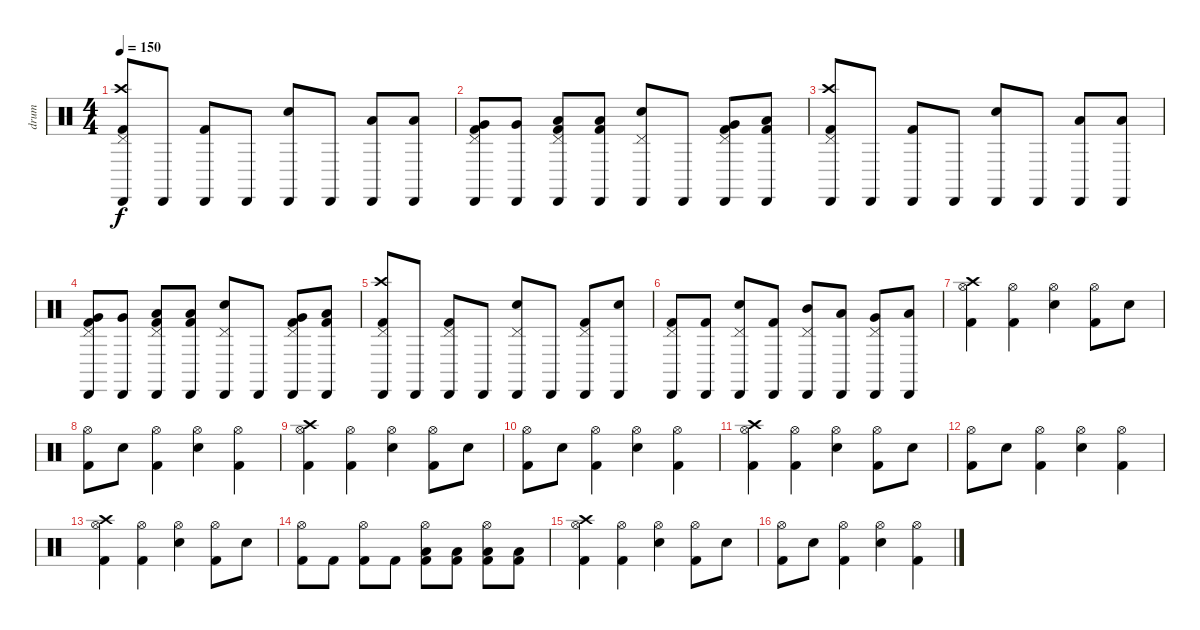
\track ("drum" "drum") {instrument percussion}
\staff {score}
\articulation defaults
\ts (4 4)
\tempo 150
\clef neutral
\ks c
("Crash high (hit)" "Pedal Hi-Hat (hit)" "Kick (hit) 2" "Cabasa (hit)").8{dy f} "Cabasa (hit)".8 ("Kick (hit) 2" "Cabasa (hit)").8 "Cabasa (hit)".8 ("Electric Snare (hit)" "Cabasa (hit)").8 "Cabasa (hit)".8 ("Low Tom (hit)" "Cabasa (hit)").8 ("Low Tom (hit)" "Cabasa (hit)").8 |
("Pedal Hi-Hat (hit)" "Very Low Tom (hit)" "Kick (hit) 2" "Cabasa (hit)").8 ("Very Low Tom (hit)" "Cabasa (hit)").8 ("Pedal Hi-Hat (hit)" "Low Floor Tom (hit)" "Kick (hit) 2" "Cabasa (hit)").8 ("Low Floor Tom (hit)" "Kick (hit) 2" "Cabasa (hit)").8 ("Pedal Hi-Hat (hit)" "Electric Snare (hit)" "Cabasa (hit)").8 "Cabasa (hit)".8 ("Pedal Hi-Hat (hit)" "Very Low Tom (hit)" "Kick (hit) 2" "Cabasa (hit)").8 ("Low Floor Tom (hit)" "Kick (hit) 2" "Cabasa (hit)").8 |
("Crash high (hit)" "Pedal Hi-Hat (hit)" "Kick (hit) 2" "Cabasa (hit)").8 "Cabasa (hit)".8 ("Kick (hit) 2" "Cabasa (hit)").8 "Cabasa (hit)".8 ("Electric Snare (hit)" "Cabasa (hit)").8 "Cabasa (hit)".8 ("Low Tom (hit)" "Cabasa (hit)").8 ("Low Tom (hit)" "Cabasa (hit)").8 |
("Pedal Hi-Hat (hit)" "Very Low Tom (hit)" "Kick (hit) 2" "Cabasa (hit)").8 ("Very Low Tom (hit)" "Cabasa (hit)").8 ("Pedal Hi-Hat (hit)" "Low Floor Tom (hit)" "Kick (hit) 2" "Cabasa (hit)").8 ("Low Floor Tom (hit)" "Kick (hit) 2" "Cabasa (hit)").8 ("Pedal Hi-Hat (hit)" "Electric Snare (hit)" "Cabasa (hit)").8 "Cabasa (hit)".8 ("Pedal Hi-Hat (hit)" "Very Low Tom (hit)" "Kick (hit) 2" "Cabasa (hit)").8 ("Low Floor Tom (hit)" "Kick (hit) 2" "Cabasa (hit)").8 |
("Crash high (hit)" "Pedal Hi-Hat (hit)" "Kick (hit) 2" "Cabasa (hit)").8 "Cabasa (hit)".8 ("Pedal Hi-Hat (hit)" "Kick (hit) 2" "Cabasa (hit)").8 "Cabasa (hit)".8 ("Pedal Hi-Hat (hit)" "Electric Snare (hit)" "Cabasa (hit)").8 "Cabasa (hit)".8 ("Pedal Hi-Hat (hit)" "Kick (hit) 2" "Cabasa (hit)").8 ("Electric Snare (hit)" "Cabasa (hit)").8 |
("Pedal Hi-Hat (hit)" "Kick (hit) 2" "Cabasa (hit)").8 ("Kick (hit) 2" "Cabasa (hit)").8 ("Pedal Hi-Hat (hit)" "Electric Snare (hit)" "Cabasa (hit)").8 ("Kick (hit) 2" "Cabasa (hit)").8 ("Pedal Hi-Hat (hit)" "Mid Tom (hit)" "Cabasa (hit)").8 ("Low Tom (hit)" "Cabasa (hit)").8 ("Pedal Hi-Hat (hit)" "Very Low Tom (hit)" "Cabasa (hit)").8 ("Low Floor Tom (hit)" "Cabasa (hit)").8 |
("Crash high (hit)" "Hi-Hat (open)" "Kick (hit) 2").4 ("Hi-Hat (open)" "Kick (hit) 2").4 ("Hi-Hat (open)" "Electric Snare (hit)").4 ("Hi-Hat (open)" "Kick (hit) 2").8 "Electric Snare (hit)".8 |
("Hi-Hat (open)" "Kick (hit) 2").8 "Electric Snare (hit)".8 ("Hi-Hat (open)" "Kick (hit) 2").4 ("Hi-Hat (open)" "Electric Snare (hit)").4 ("Hi-Hat (open)" "Kick (hit) 2").4 |
("Crash high (hit)" "Hi-Hat (open)" "Kick (hit) 2").4 ("Hi-Hat (open)" "Kick (hit) 2").4 ("Hi-Hat (open)" "Electric Snare (hit)").4 ("Hi-Hat (open)" "Kick (hit) 2").8 "Electric Snare (hit)".8 |
("Hi-Hat (open)" "Kick (hit) 2").8 "Electric Snare (hit)".8 ("Hi-Hat (open)" "Kick (hit) 2").4 ("Hi-Hat (open)" "Electric Snare (hit)").4 ("Hi-Hat (open)" "Kick (hit) 2").4 |
("Crash high (hit)" "Hi-Hat (open)" "Kick (hit) 2").4 ("Hi-Hat (open)" "Kick (hit) 2").4 ("Hi-Hat (open)" "Electric Snare (hit)").4 ("Hi-Hat (open)" "Kick (hit) 2").8 "Electric Snare (hit)".8 |
("Hi-Hat (open)" "Kick (hit) 2").8 "Electric Snare (hit)".8 ("Hi-Hat (open)" "Kick (hit) 2").4 ("Hi-Hat (open)" "Electric Snare (hit)").4 ("Hi-Hat (open)" "Kick (hit) 2").4 |
("Crash high (hit)" "Hi-Hat (open)" "Kick (hit) 2").4 ("Hi-Hat (open)" "Kick (hit) 2").4 ("Hi-Hat (open)" "Electric Snare (hit)").4 ("Hi-Hat (open)" "Kick (hit) 2").8 "Electric Snare (hit)".8 |
("Hi-Hat (open)" "Kick (hit) 2").8 "Kick (hit) 2".8 ("Hi-Hat (open)" "Kick (hit) 2").8 "Kick (hit) 2".8 ("Hi-Hat (open)" "Low Floor Tom (hit)" "Kick (hit) 2").8 ("Low Floor Tom (hit)" "Kick (hit) 2").8 ("Hi-Hat (open)" "Low Floor Tom (hit)" "Kick (hit) 2").8 ("Low Floor Tom (hit)" "Kick (hit) 2").8 |
("Crash high (hit)" "Hi-Hat (open)" "Kick (hit) 2").4 ("Hi-Hat (open)" "Kick (hit) 2").4 ("Hi-Hat (open)" "Electric Snare (hit)").4 ("Hi-Hat (open)" "Kick (hit) 2").8 "Electric Snare (hit)".8 |
("Hi-Hat (open)" "Kick (hit) 2").8 "Electric Snare (hit)".8 ("Hi-Hat (open)" "Kick (hit) 2").4 ("Hi-Hat (open)" "Electric Snare (hit)").4 ("Hi-Hat (open)" "Kick (hit) 2").4
